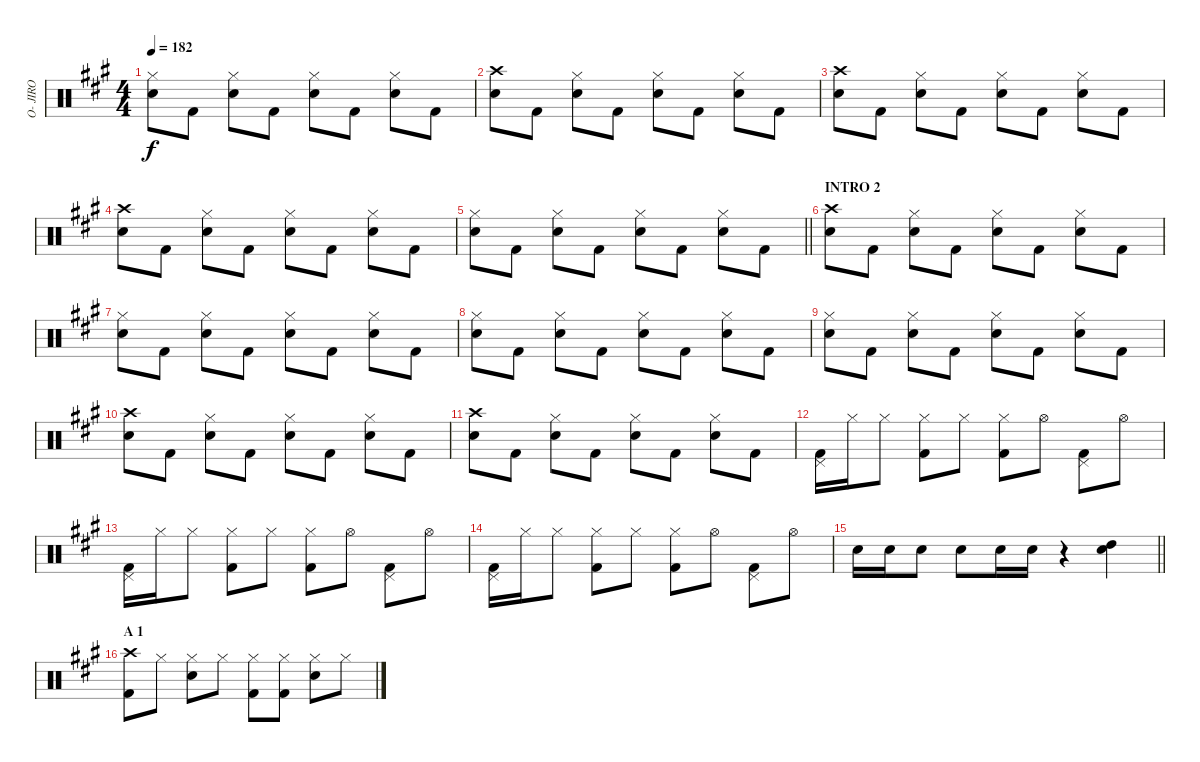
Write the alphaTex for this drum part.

\track ("O- JIRO" "O- JIRO") {instrument percussion}
\staff {score}
\articulation defaults
\ts (4 4)
\tempo 182
\clef neutral
\ks a
("Hi-Hat (closed)" "Snare (hit) 2").8{dy f} "Kick (hit) 2".8 ("Hi-Hat (closed)" "Snare (hit) 2").8 "Kick (hit) 2".8 ("Hi-Hat (closed)" "Snare (hit) 2").8 "Kick (hit) 2".8 ("Hi-Hat (closed)" "Snare (hit) 2").8 "Kick (hit) 2".8 |
("Crash high (hit)" "Snare (hit) 2").8 "Kick (hit) 2".8 ("Hi-Hat (closed)" "Snare (hit) 2").8 "Kick (hit) 2".8 ("Hi-Hat (closed)" "Snare (hit) 2").8 "Kick (hit) 2".8 ("Hi-Hat (closed)" "Snare (hit) 2").8 "Kick (hit) 2".8 |
("Crash high (hit)" "Snare (hit) 2").8 "Kick (hit) 2".8 ("Hi-Hat (closed)" "Snare (hit) 2").8 "Kick (hit) 2".8 ("Hi-Hat (closed)" "Snare (hit) 2").8 "Kick (hit) 2".8 ("Hi-Hat (closed)" "Snare (hit) 2").8 "Kick (hit) 2".8 |
("Crash high (hit)" "Snare (hit) 2").8 "Kick (hit) 2".8 ("Hi-Hat (closed)" "Snare (hit) 2").8 "Kick (hit) 2".8 ("Hi-Hat (closed)" "Snare (hit) 2").8 "Kick (hit) 2".8 ("Hi-Hat (closed)" "Snare (hit) 2").8 "Kick (hit) 2".8 |
\barLineRight lightlight
("Hi-Hat (closed)" "Snare (hit) 2").8 "Kick (hit) 2".8 ("Hi-Hat (closed)" "Snare (hit) 2").8 "Kick (hit) 2".8 ("Hi-Hat (closed)" "Snare (hit) 2").8 "Kick (hit) 2".8 ("Hi-Hat (closed)" "Snare (hit) 2").8 "Kick (hit) 2".8 |
\section ("" "INTRO 2")
("Crash high (hit)" "Snare (hit) 2").8 "Kick (hit) 2".8 ("Hi-Hat (closed)" "Snare (hit) 2").8 "Kick (hit) 2".8 ("Hi-Hat (closed)" "Snare (hit) 2").8 "Kick (hit) 2".8 ("Hi-Hat (closed)" "Snare (hit) 2").8 "Kick (hit) 2".8 |
("Hi-Hat (closed)" "Snare (hit) 2").8 "Kick (hit) 2".8 ("Hi-Hat (closed)" "Snare (hit) 2").8 "Kick (hit) 2".8 ("Hi-Hat (closed)" "Snare (hit) 2").8 "Kick (hit) 2".8 ("Hi-Hat (closed)" "Snare (hit) 2").8 "Kick (hit) 2".8 |
("Hi-Hat (closed)" "Snare (hit) 2").8 "Kick (hit) 2".8 ("Hi-Hat (closed)" "Snare (hit) 2").8 "Kick (hit) 2".8 ("Hi-Hat (closed)" "Snare (hit) 2").8 "Kick (hit) 2".8 ("Hi-Hat (closed)" "Snare (hit) 2").8 "Kick (hit) 2".8 |
("Hi-Hat (closed)" "Snare (hit) 2").8 "Kick (hit) 2".8 ("Hi-Hat (closed)" "Snare (hit) 2").8 "Kick (hit) 2".8 ("Hi-Hat (closed)" "Snare (hit) 2").8 "Kick (hit) 2".8 ("Hi-Hat (closed)" "Snare (hit) 2").8 "Kick (hit) 2".8 |
("Crash high (hit)" "Snare (hit) 2").8 "Kick (hit) 2".8 ("Hi-Hat (closed)" "Snare (hit) 2").8 "Kick (hit) 2".8 ("Hi-Hat (closed)" "Snare (hit) 2").8 "Kick (hit) 2".8 ("Hi-Hat (closed)" "Snare (hit) 2").8 "Kick (hit) 2".8 |
("Crash high (hit)" "Snare (hit) 2").8 "Kick (hit) 2".8 ("Hi-Hat (closed)" "Snare (hit) 2").8 "Kick (hit) 2".8 ("Hi-Hat (closed)" "Snare (hit) 2").8 "Kick (hit) 2".8 ("Hi-Hat (closed)" "Snare (hit) 2").8 "Kick (hit) 2".8 |
("Pedal Hi-Hat (hit)" "Kick (hit) 2").16 "Hi-Hat (closed)".16 "Hi-Hat (closed)".8 ("Hi-Hat (closed)" "Kick (hit) 2").8 "Hi-Hat (closed)".8 ("Hi-Hat (closed)" "Kick (hit) 2").8 "Hi-Hat (open)".8 ("Pedal Hi-Hat (hit)" "Kick (hit) 2").8 "Hi-Hat (open)".8 |
("Pedal Hi-Hat (hit)" "Kick (hit) 2").16 "Hi-Hat (closed)".16 "Hi-Hat (closed)".8 ("Hi-Hat (closed)" "Kick (hit) 2").8 "Hi-Hat (closed)".8 ("Hi-Hat (closed)" "Kick (hit) 2").8 "Hi-Hat (open)".8 ("Pedal Hi-Hat (hit)" "Kick (hit) 2").8 "Hi-Hat (open)".8 |
("Pedal Hi-Hat (hit)" "Kick (hit) 2").16 "Hi-Hat (closed)".16 "Hi-Hat (closed)".8 ("Hi-Hat (closed)" "Kick (hit) 2").8 "Hi-Hat (closed)".8 ("Hi-Hat (closed)" "Kick (hit) 2").8 "Hi-Hat (open)".8 ("Pedal Hi-Hat (hit)" "Kick (hit) 2").8 "Hi-Hat (open)".8 |
\barLineRight lightlight "Snare (hit) 2".16 "Snare (hit) 2".16 "Snare (hit) 2".8 "Snare (hit) 2".8 "Snare (hit) 2".16 "Snare (hit) 2".16
r.4 ("High Tom (hit)" "Snare (hit) 2").4 |
\section ("" "A 1")
("Crash high (hit)" "Kick (hit) 2").8 "Hi-Hat (closed)".8 ("Hi-Hat (closed)" "Snare (hit) 2").8 "Hi-Hat (closed)".8 ("Hi-Hat (closed)" "Kick (hit) 2").8 ("Hi-Hat (closed)" "Kick (hit) 2").8 ("Hi-Hat (closed)" "Snare (hit) 2").8 "Hi-Hat (closed)".8
